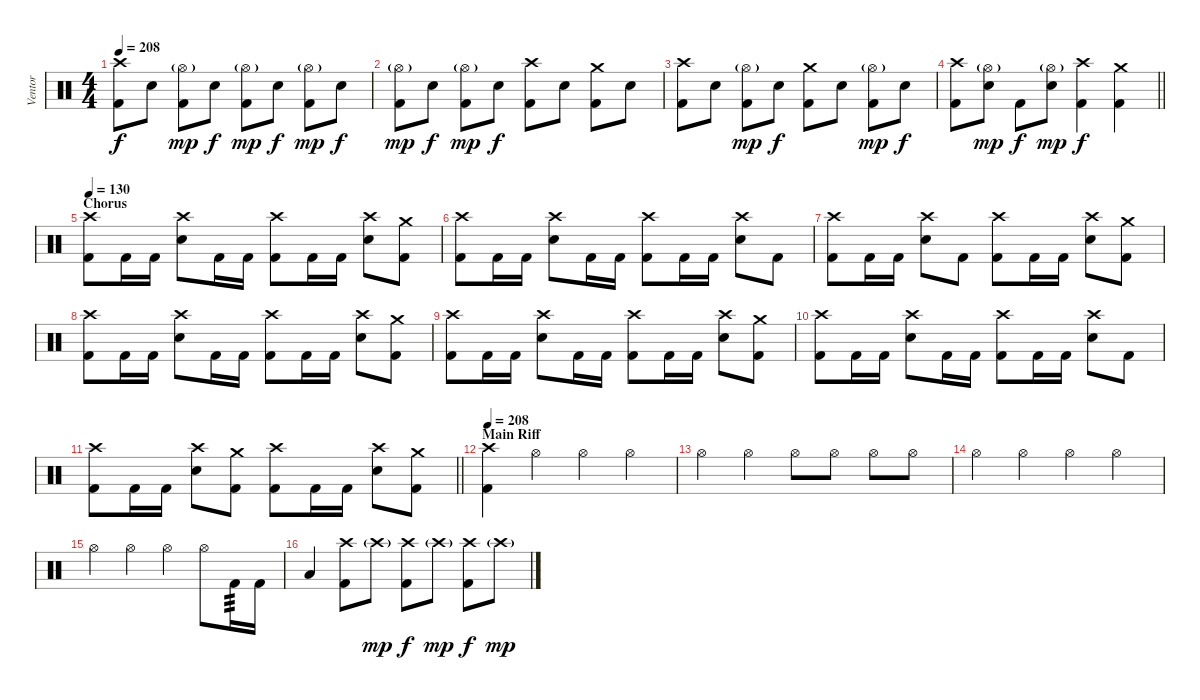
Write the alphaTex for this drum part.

\track ("Ventor" "Ventor") {instrument percussion}
\staff {score}
\articulation defaults
\ts (4 4)
\tempo 208
\clef neutral
\ks c
("Crash high (hit)" "Kick (hit) 2").8{dy f} "Electric Snare (hit)".8 ("Hi-Hat (open)"{g} "Kick (hit) 2").8{dy mp} "Electric Snare (hit)".8{dy f} ("Hi-Hat (open)"{g} "Kick (hit) 2").8{dy mp} "Electric Snare (hit)".8{dy f} ("Hi-Hat (open)"{g} "Kick (hit) 2").8{dy mp} "Electric Snare (hit)".8{dy f} |
("Hi-Hat (open)"{g} "Kick (hit) 2").8{dy mp} "Electric Snare (hit)".8{dy f} ("Hi-Hat (open)"{g} "Kick (hit) 2").8{dy mp} "Electric Snare (hit)".8{dy f} ("Crash high (hit)" "Kick (hit) 2").8 "Electric Snare (hit)".8 ("Crash medium (hit)" "Kick (hit) 2").8 "Electric Snare (hit)".8 |
("Crash high (hit)" "Kick (hit) 2").8 "Electric Snare (hit)".8 ("Hi-Hat (open)"{g} "Kick (hit) 2").8{dy mp} "Electric Snare (hit)".8{dy f} ("Crash medium (hit)" "Kick (hit) 2").8 "Electric Snare (hit)".8 ("Hi-Hat (open)"{g} "Kick (hit) 2").8{dy mp} "Electric Snare (hit)".8{dy f} |
\barLineRight lightlight
("Crash high (hit)" "Kick (hit) 2").8 ("Hi-Hat (open)"{g} "Electric Snare (hit)").8{dy mp} "Kick (hit) 2".8{dy f} ("Hi-Hat (open)"{g} "Electric Snare (hit)").8{dy mp} ("Crash high (hit)" "Kick (hit) 2").4{dy f} ("Crash medium (hit)" "Kick (hit) 2").4 |
\section ("" "Chorus")
\tempo 130
("Crash high (hit)" "Kick (hit) 2").8 "Kick (hit) 2".16 "Kick (hit) 2".16 ("Crash high (hit)" "Electric Snare (hit)").8 "Kick (hit) 2".16 "Kick (hit) 2".16 ("Crash high (hit)" "Kick (hit) 2").8 "Kick (hit) 2".16 "Kick (hit) 2".16 ("Crash high (hit)" "Electric Snare (hit)").8 ("Crash medium (hit)" "Kick (hit) 2").8 |
("Crash high (hit)" "Kick (hit) 2").8 "Kick (hit) 2".16 "Kick (hit) 2".16 ("Crash high (hit)" "Electric Snare (hit)").8 "Kick (hit) 2".16 "Kick (hit) 2".16 ("Crash high (hit)" "Kick (hit) 2").8 "Kick (hit) 2".16 "Kick (hit) 2".16 ("Crash high (hit)" "Electric Snare (hit)").8 "Kick (hit) 2".8 |
("Crash high (hit)" "Kick (hit) 2").8 "Kick (hit) 2".16 "Kick (hit) 2".16 ("Crash high (hit)" "Electric Snare (hit)").8 "Kick (hit) 2".8 ("Crash high (hit)" "Kick (hit) 2").8 "Kick (hit) 2".16 "Kick (hit) 2".16 ("Crash high (hit)" "Electric Snare (hit)").8 ("Crash medium (hit)" "Kick (hit) 2").8 |
("Crash high (hit)" "Kick (hit) 2").8 "Kick (hit) 2".16 "Kick (hit) 2".16 ("Crash high (hit)" "Electric Snare (hit)").8 "Kick (hit) 2".16 "Kick (hit) 2".16 ("Crash high (hit)" "Kick (hit) 2").8 "Kick (hit) 2".16 "Kick (hit) 2".16 ("Crash high (hit)" "Electric Snare (hit)").8 ("Crash medium (hit)" "Kick (hit) 2").8 |
("Crash high (hit)" "Kick (hit) 2").8 "Kick (hit) 2".16 "Kick (hit) 2".16 ("Crash high (hit)" "Electric Snare (hit)").8 "Kick (hit) 2".16 "Kick (hit) 2".16 ("Crash high (hit)" "Kick (hit) 2").8 "Kick (hit) 2".16 "Kick (hit) 2".16 ("Crash high (hit)" "Electric Snare (hit)").8 ("Crash medium (hit)" "Kick (hit) 2").8 |
("Crash high (hit)" "Kick (hit) 2").8 "Kick (hit) 2".16 "Kick (hit) 2".16 ("Crash high (hit)" "Electric Snare (hit)").8 "Kick (hit) 2".16 "Kick (hit) 2".16 ("Crash high (hit)" "Kick (hit) 2").8 "Kick (hit) 2".16 "Kick (hit) 2".16 ("Crash high (hit)" "Electric Snare (hit)").8 "Kick (hit) 2".8 |
\barLineRight lightlight
("Crash high (hit)" "Kick (hit) 2").8 "Kick (hit) 2".16 "Kick (hit) 2".16 ("Crash high (hit)" "Electric Snare (hit)").8 ("Crash medium (hit)" "Kick (hit) 2").8 ("Crash high (hit)" "Kick (hit) 2").8 "Kick (hit) 2".16 "Kick (hit) 2".16 ("Crash high (hit)" "Electric Snare (hit)").8 ("Crash medium (hit)" "Kick (hit) 2").8 |
\section ("" "Main Riff")
\tempo 208
("Crash high (hit)" "Kick (hit) 2").4 "Hi-Hat (open)".4 "Hi-Hat (open)".4 "Hi-Hat (open)".4 |
"Hi-Hat (open)".4 "Hi-Hat (open)".4 "Hi-Hat (open)".8 "Hi-Hat (open)".8 "Hi-Hat (open)".8 "Hi-Hat (open)".8 |
"Hi-Hat (open)".4 "Hi-Hat (open)".4 "Hi-Hat (open)".4 "Hi-Hat (open)".4 |
"Hi-Hat (open)".4 "Hi-Hat (open)".4 "Hi-Hat (open)".4 "Hi-Hat (open)".8 "Kick (hit) 2".16{tp 3} "Kick (hit) 2".16 |
"Low Tom (hit)".4 ("Crash high (hit)" "Kick (hit) 2").8 "Crash high (hit)"{g}.8{dy mp} ("Crash high (hit)" "Kick (hit) 2").8{dy f} "Crash high (hit)"{g}.8{dy mp} ("Crash high (hit)" "Kick (hit) 2").8{dy f} "Crash high (hit)"{g}.8{dy mp}
